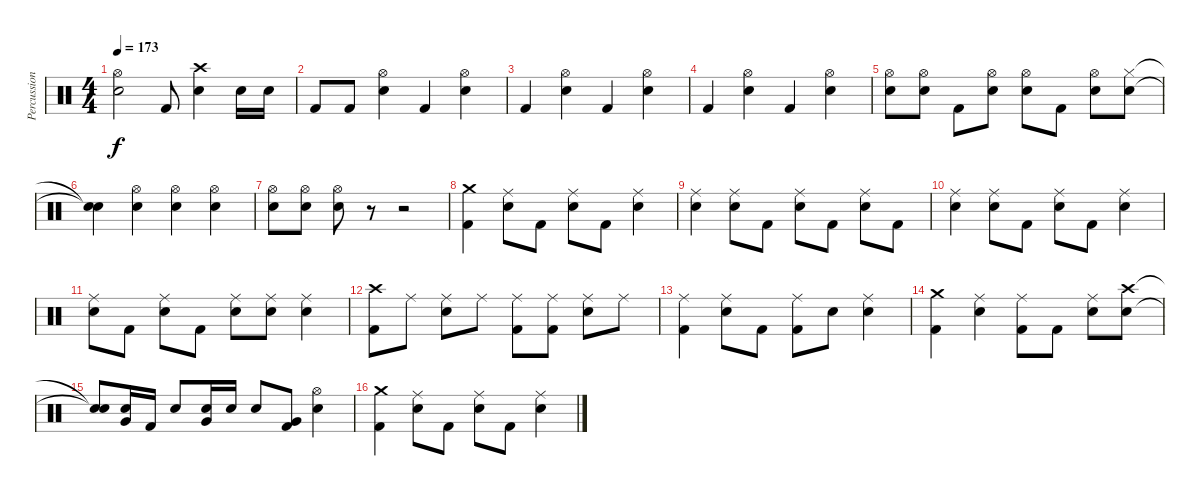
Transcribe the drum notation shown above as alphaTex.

\track ("Percussion" "Percussion") {instrument percussion}
\staff {score}
\articulation defaults
\ts (4 4)
\tempo 173
\clef neutral
\ks c
("Hi-Hat (open)" "Electric Snare (hit)").2{dy f} "Kick (hit) 2".8 ("Crash high (hit)" "Electric Snare (hit)").4 "Electric Snare (hit)".16 "Electric Snare (hit)".16 |
"Kick (hit) 2".8 "Kick (hit) 2".8 ("Hi-Hat (open)" "Electric Snare (hit)").4 "Kick (hit) 2".4 ("Hi-Hat (open)" "Electric Snare (hit)").4 |
"Kick (hit) 2".4 ("Hi-Hat (open)" "Electric Snare (hit)").4 "Kick (hit) 2".4 ("Hi-Hat (open)" "Electric Snare (hit)").4 |
"Kick (hit) 2".4 ("Hi-Hat (open)" "Electric Snare (hit)").4 "Kick (hit) 2".4 ("Hi-Hat (open)" "Electric Snare (hit)").4 |
("Hi-Hat (open)" "Electric Snare (hit)").8 ("Hi-Hat (open)" "Electric Snare (hit)").8 "Kick (hit) 2".8 ("Hi-Hat (open)" "Electric Snare (hit)").8 ("Hi-Hat (open)" "Electric Snare (hit)").8 "Kick (hit) 2".8 ("Hi-Hat (open)" "Electric Snare (hit)").8 ("Hi-Hat (closed)" "Electric Snare (hit)").8 |
("Snare (hit)"{t} "Snare (hit)"{t}).4 ("Hi-Hat (open)" "Electric Snare (hit)").4 ("Hi-Hat (open)" "Electric Snare (hit)").4 ("Hi-Hat (open)" "Electric Snare (hit)").4 |
("Hi-Hat (open)" "Electric Snare (hit)").8 ("Hi-Hat (open)" "Electric Snare (hit)").8 ("Hi-Hat (open)" "Electric Snare (hit)").8 r.8 r.2 |
("Crash medium (hit)" "Kick (hit) 2").4 ("Ride (middle)" "Electric Snare (hit)").8 "Kick (hit) 2".8 ("Ride (middle)" "Electric Snare (hit)").8 "Kick (hit) 2".8 ("Ride (middle)" "Electric Snare (hit)").4 |
("Ride (middle)" "Electric Snare (hit)").4 ("Ride (middle)" "Electric Snare (hit)").8 "Kick (hit) 2".8 ("Ride (middle)" "Electric Snare (hit)").8 "Kick (hit) 2".8 ("Ride (middle)" "Electric Snare (hit)").8 "Kick (hit) 2".8 |
("Ride (middle)" "Electric Snare (hit)").4 ("Ride (middle)" "Electric Snare (hit)").8 "Kick (hit) 2".8 ("Ride (middle)" "Electric Snare (hit)").8 "Kick (hit) 2".8 ("Ride (middle)" "Electric Snare (hit)").4 |
("Ride (middle)" "Electric Snare (hit)").8 "Kick (hit) 2".8 ("Ride (middle)" "Electric Snare (hit)").8 "Kick (hit) 2".8 ("Ride (middle)" "Electric Snare (hit)").8 ("Ride (middle)" "Electric Snare (hit)").8 ("Ride (middle)" "Electric Snare (hit)").4 |
("Crash high (hit)" "Kick (hit) 2").8 "Ride (middle)".8 ("Ride (middle)" "Electric Snare (hit)").8 "Ride (middle)".8 ("Ride (middle)" "Kick (hit) 2").8 ("Ride (middle)" "Kick (hit) 2").8 ("Ride (middle)" "Electric Snare (hit)").8 "Ride (middle)".8 |
("Ride (middle)" "Kick (hit) 2").4 ("Ride (middle)" "Electric Snare (hit)").8 "Kick (hit) 2".8 ("Ride (middle)" "Kick (hit) 2").8 "Electric Snare (hit)".8 ("Ride (middle)" "Electric Snare (hit)").4 |
("Crash medium (hit)" "Kick (hit) 2").4 ("Ride (middle)" "Electric Snare (hit)").4 ("Ride (middle)" "Kick (hit) 2").8 "Kick (hit) 2".8 ("Ride (middle)" "Electric Snare (hit)").8 ("Crash high (hit)" "Electric Snare (hit)").8 |
("Snare (hit)"{t} "Snare (hit)"{t}).8 ("Very Low Tom (hit)" "Electric Snare (hit)").16 "Kick (hit) 2".16 "Electric Snare (hit)".8 ("Very Low Tom (hit)" "Electric Snare (hit)").16 "Electric Snare (hit)".16 "Electric Snare (hit)".8 ("Very Low Tom (hit)" "Kick (hit) 2").8 ("Hi-Hat (open)" "Electric Snare (hit)").4 |
("Crash medium (hit)" "Kick (hit) 2").4 ("Ride (middle)" "Electric Snare (hit)").8 "Kick (hit) 2".8 ("Ride (middle)" "Electric Snare (hit)").8 "Kick (hit) 2".8 ("Ride (middle)" "Electric Snare (hit)").4
